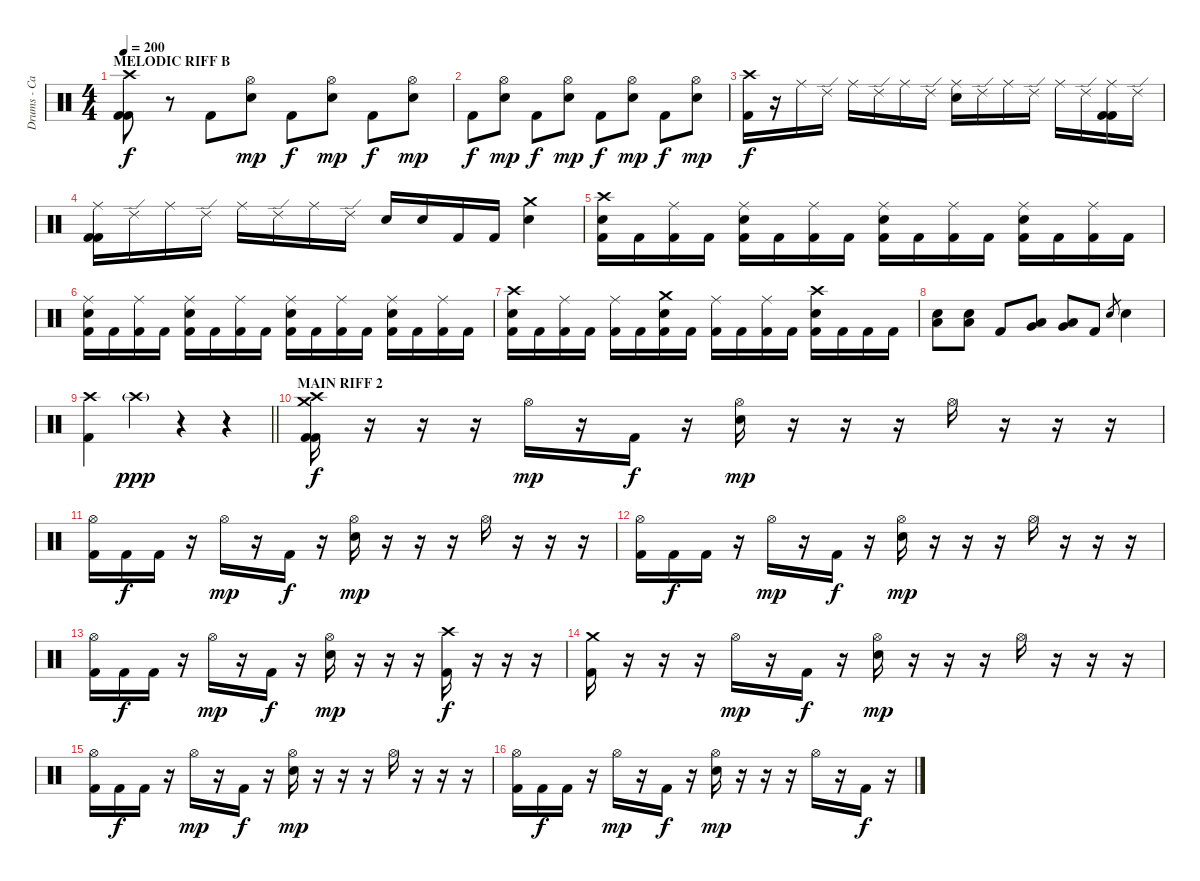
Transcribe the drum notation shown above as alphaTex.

\track ("Drums - Carlos Cruz" "Drums - Ca") {instrument percussion}
\staff {score}
\articulation defaults
\ts (4 4)
\section ("" "MELODIC RIFF B")
\tempo 200
\clef neutral
\ks c
("Crash high (hit)" "Kick (hit) 2" "Kick (hit) 2").8{dy f} r.8 "Kick (hit) 2".8 ("Hi-Hat (open)" "Snare (hit) 2").8{dy mp} "Kick (hit) 2".8{dy f} ("Hi-Hat (open)" "Snare (hit) 2").8{dy mp} "Kick (hit) 2".8{dy f} ("Hi-Hat (open)" "Snare (hit) 2").8{dy mp} |
"Kick (hit) 2".8{dy f} ("Hi-Hat (open)" "Snare (hit) 2").8{dy mp} "Kick (hit) 2".8{dy f} ("Hi-Hat (open)" "Snare (hit) 2").8{dy mp} "Kick (hit) 2".8{dy f} ("Hi-Hat (open)" "Snare (hit) 2").8{dy mp} "Kick (hit) 2".8{dy f} ("Hi-Hat (open)" "Snare (hit) 2").8{dy mp} |
("Crash high (hit)" "Kick (hit) 2").16{dy f} r.16 "Ride (middle)".16 "Ride (edge) 2".16 "Ride (middle)".16 "Ride (edge) 2".16 "Ride (middle)".16 "Ride (edge) 2".16 ("Ride (middle)" "Snare (hit) 2").16 "Ride (edge) 2".16 "Ride (middle)".16 "Ride (edge) 2".16 "Ride (middle)".16 "Ride (edge) 2".16 ("Ride (middle)" "Kick (hit) 2" "Kick (hit) 2").16 "Ride (edge) 2".16 |
("Ride (middle)" "Kick (hit) 2" "Kick (hit) 2").16 "Ride (edge) 2".16 "Ride (middle)".16 "Ride (edge) 2".16 "Ride (middle)".16 "Ride (edge) 2".16 "Ride (middle)".16 "Ride (edge) 2".16 "Snare (hit) 2".16 "Snare (hit) 2".16 "Kick (hit) 2".16 "Kick (hit) 2".16 ("Crash medium (hit)" "Snare (hit) 2").4 |
("Crash high (hit)" "Snare (hit) 2" "Kick (hit) 2").16 "Kick (hit) 2".16 ("Ride (middle)" "Kick (hit) 2").16 "Kick (hit) 2".16 ("Ride (middle)" "Snare (hit) 2" "Kick (hit) 2").16 "Kick (hit) 2".16 ("Ride (middle)" "Kick (hit) 2").16 "Kick (hit) 2".16 ("Ride (middle)" "Snare (hit) 2" "Kick (hit) 2").16 "Kick (hit) 2".16 ("Ride (middle)" "Kick (hit) 2").16 "Kick (hit) 2".16 ("Ride (middle)" "Snare (hit) 2" "Kick (hit) 2").16 "Kick (hit) 2".16 ("Ride (middle)" "Kick (hit) 2").16 "Kick (hit) 2".16 |
("Ride (middle)" "Snare (hit) 2" "Kick (hit) 2").16 "Kick (hit) 2".16 ("Ride (middle)" "Kick (hit) 2").16 "Kick (hit) 2".16 ("Ride (middle)" "Snare (hit) 2" "Kick (hit) 2").16 "Kick (hit) 2".16 ("Ride (middle)" "Kick (hit) 2").16 "Kick (hit) 2".16 ("Ride (middle)" "Snare (hit) 2" "Kick (hit) 2").16 "Kick (hit) 2".16 ("Ride (middle)" "Kick (hit) 2").16 "Kick (hit) 2".16 ("Ride (middle)" "Snare (hit) 2" "Kick (hit) 2").16 "Kick (hit) 2".16 ("Ride (middle)" "Kick (hit) 2").16 "Kick (hit) 2".16 |
("Crash high (hit)" "Snare (hit) 2" "Kick (hit) 2").16 "Kick (hit) 2".16 ("Ride (middle)" "Kick (hit) 2").16 "Kick (hit) 2".16 ("Ride (middle)" "Kick (hit) 2").16 "Kick (hit) 2".16 ("Crash medium (hit)" "Snare (hit) 2" "Kick (hit) 2").16 "Kick (hit) 2".16 ("Ride (middle)" "Kick (hit) 2").16 "Kick (hit) 2".16 ("Ride (middle)" "Kick (hit) 2").16 "Kick (hit) 2".16 ("Crash high (hit)" "Snare (hit) 2" "Kick (hit) 2").16 "Kick (hit) 2".16 "Kick (hit) 2".16 "Kick (hit) 2".16 |
("Low Tom (hit)" "Snare (hit) 2").8 ("Low Tom (hit)" "Snare (hit) 2").8 "Kick (hit) 2".8 ("Low Tom (hit)" "Very Low Tom (hit)").8 ("Low Tom (hit)" "Very Low Tom (hit)").8 "Kick (hit) 2".8 "Snare (hit) 2".8{gr} "Snare (hit) 2".4 |
\barLineRight lightlight
("Crash high (hit)" "Kick (hit) 2").4 "Crash high (hit)"{g}.4{dy ppp} r.4 r.4 |
\section ("" "MAIN RIFF 2")
("Crash medium (hit)" "Crash high (hit)" "Kick (hit) 2" "Kick (hit) 2").16{dy f} r.16 r.16 r.16 "Hi-Hat (open)".16{dy mp} r.16 "Kick (hit) 2".16{dy f} r.16 ("Hi-Hat (open)" "Snare (hit) 2").16{dy mp} r.16 r.16 r.16 "Hi-Hat (open)".16 r.16 r.16 r.16 |
("Hi-Hat (open)" "Kick (hit) 2").16 "Kick (hit) 2".16{dy f} "Kick (hit) 2".16 r.16 "Hi-Hat (open)".16{dy mp} r.16 "Kick (hit) 2".16{dy f} r.16 ("Hi-Hat (open)" "Snare (hit) 2").16{dy mp} r.16 r.16 r.16 "Hi-Hat (open)".16 r.16 r.16 r.16 |
("Hi-Hat (open)" "Kick (hit) 2").16 "Kick (hit) 2".16{dy f} "Kick (hit) 2".16 r.16 "Hi-Hat (open)".16{dy mp} r.16 "Kick (hit) 2".16{dy f} r.16 ("Hi-Hat (open)" "Snare (hit) 2").16{dy mp} r.16 r.16 r.16 "Hi-Hat (open)".16 r.16 r.16 r.16 |
("Hi-Hat (open)" "Kick (hit) 2").16 "Kick (hit) 2".16{dy f} "Kick (hit) 2".16 r.16 "Hi-Hat (open)".16{dy mp} r.16 "Kick (hit) 2".16{dy f} r.16 ("Hi-Hat (open)" "Snare (hit) 2").16{dy mp} r.16 r.16 r.16 ("Crash high (hit)" "Kick (hit) 2").16{dy f} r.16 r.16 r.16 |
("Crash medium (hit)" "Kick (hit) 2").16 r.16 r.16 r.16 "Hi-Hat (open)".16{dy mp} r.16 "Kick (hit) 2".16{dy f} r.16 ("Hi-Hat (open)" "Snare (hit) 2").16{dy mp} r.16 r.16 r.16 "Hi-Hat (open)".16 r.16 r.16 r.16 |
("Hi-Hat (open)" "Kick (hit) 2").16 "Kick (hit) 2".16{dy f} "Kick (hit) 2".16 r.16 "Hi-Hat (open)".16{dy mp} r.16 "Kick (hit) 2".16{dy f} r.16 ("Hi-Hat (open)" "Snare (hit) 2").16{dy mp} r.16 r.16 r.16 "Hi-Hat (open)".16 r.16 r.16 r.16 |
("Hi-Hat (open)" "Kick (hit) 2").16 "Kick (hit) 2".16{dy f} "Kick (hit) 2".16 r.16 "Hi-Hat (open)".16{dy mp} r.16 "Kick (hit) 2".16{dy f} r.16 ("Hi-Hat (open)" "Snare (hit) 2").16{dy mp} r.16 r.16 r.16 "Hi-Hat (open)".16 r.16 "Kick (hit) 2".16{dy f} r.16
